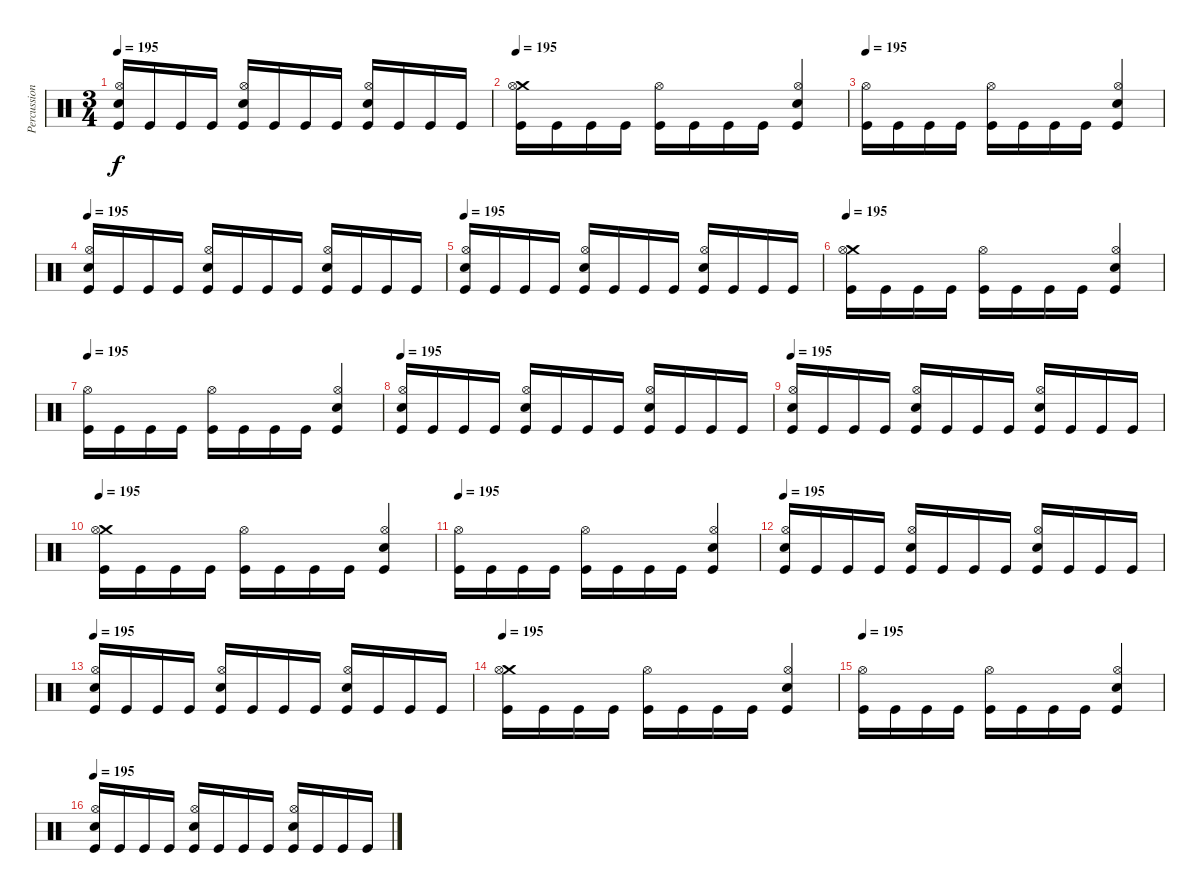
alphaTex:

\track ("Percussion" "Percussion") {instrument percussion}
\staff {score}
\articulation defaults
\ts (3 4)
\tempo 195
\clef neutral
\ks c
("Electric Snare (hit)" "Hi-Hat (open)" "Kick (hit)").16{dy f} "Kick (hit)".16 "Kick (hit)".16 "Kick (hit)".16 ("Electric Snare (hit)" "Hi-Hat (open)" "Kick (hit)").16 "Kick (hit)".16 "Kick (hit)".16 "Kick (hit)".16 ("Electric Snare (hit)" "Hi-Hat (open)" "Kick (hit)").16 "Kick (hit)".16 "Kick (hit)".16 "Kick (hit)".16 |
\tempo 195
("Crash medium (hit)" "Hi-Hat (open)" "Kick (hit)").16 "Kick (hit)".16 "Kick (hit)".16 "Kick (hit)".16 ("Hi-Hat (open)" "Kick (hit)").16 "Kick (hit)".16 "Kick (hit)".16 "Kick (hit)".16 ("Electric Snare (hit)" "Hi-Hat (open)" "Kick (hit)").4 |
\tempo 195
("Hi-Hat (open)" "Kick (hit)").16 "Kick (hit)".16 "Kick (hit)".16 "Kick (hit)".16 ("Hi-Hat (open)" "Kick (hit)").16 "Kick (hit)".16 "Kick (hit)".16 "Kick (hit)".16 ("Electric Snare (hit)" "Hi-Hat (open)" "Kick (hit)").4 |
\tempo 195
("Electric Snare (hit)" "Hi-Hat (open)" "Kick (hit)").16 "Kick (hit)".16 "Kick (hit)".16 "Kick (hit)".16 ("Electric Snare (hit)" "Hi-Hat (open)" "Kick (hit)").16 "Kick (hit)".16 "Kick (hit)".16 "Kick (hit)".16 ("Electric Snare (hit)" "Hi-Hat (open)" "Kick (hit)").16 "Kick (hit)".16 "Kick (hit)".16 "Kick (hit)".16 |
\tempo 195
("Electric Snare (hit)" "Hi-Hat (open)" "Kick (hit)").16 "Kick (hit)".16 "Kick (hit)".16 "Kick (hit)".16 ("Electric Snare (hit)" "Hi-Hat (open)" "Kick (hit)").16 "Kick (hit)".16 "Kick (hit)".16 "Kick (hit)".16 ("Electric Snare (hit)" "Hi-Hat (open)" "Kick (hit)").16 "Kick (hit)".16 "Kick (hit)".16 "Kick (hit)".16 |
\tempo 195
("Crash medium (hit)" "Hi-Hat (open)" "Kick (hit)").16 "Kick (hit)".16 "Kick (hit)".16 "Kick (hit)".16 ("Hi-Hat (open)" "Kick (hit)").16 "Kick (hit)".16 "Kick (hit)".16 "Kick (hit)".16 ("Electric Snare (hit)" "Hi-Hat (open)" "Kick (hit)").4 |
\tempo 195
("Hi-Hat (open)" "Kick (hit)").16 "Kick (hit)".16 "Kick (hit)".16 "Kick (hit)".16 ("Hi-Hat (open)" "Kick (hit)").16 "Kick (hit)".16 "Kick (hit)".16 "Kick (hit)".16 ("Electric Snare (hit)" "Hi-Hat (open)" "Kick (hit)").4 |
\tempo 195
("Electric Snare (hit)" "Hi-Hat (open)" "Kick (hit)").16 "Kick (hit)".16 "Kick (hit)".16 "Kick (hit)".16 ("Electric Snare (hit)" "Hi-Hat (open)" "Kick (hit)").16 "Kick (hit)".16 "Kick (hit)".16 "Kick (hit)".16 ("Electric Snare (hit)" "Hi-Hat (open)" "Kick (hit)").16 "Kick (hit)".16 "Kick (hit)".16 "Kick (hit)".16 |
\tempo 195
("Electric Snare (hit)" "Hi-Hat (open)" "Kick (hit)").16 "Kick (hit)".16 "Kick (hit)".16 "Kick (hit)".16 ("Electric Snare (hit)" "Hi-Hat (open)" "Kick (hit)").16 "Kick (hit)".16 "Kick (hit)".16 "Kick (hit)".16 ("Electric Snare (hit)" "Hi-Hat (open)" "Kick (hit)").16 "Kick (hit)".16 "Kick (hit)".16 "Kick (hit)".16 |
\tempo 195
("Crash medium (hit)" "Hi-Hat (open)" "Kick (hit)").16 "Kick (hit)".16 "Kick (hit)".16 "Kick (hit)".16 ("Hi-Hat (open)" "Kick (hit)").16 "Kick (hit)".16 "Kick (hit)".16 "Kick (hit)".16 ("Electric Snare (hit)" "Hi-Hat (open)" "Kick (hit)").4 |
\tempo 195
("Hi-Hat (open)" "Kick (hit)").16 "Kick (hit)".16 "Kick (hit)".16 "Kick (hit)".16 ("Hi-Hat (open)" "Kick (hit)").16 "Kick (hit)".16 "Kick (hit)".16 "Kick (hit)".16 ("Electric Snare (hit)" "Hi-Hat (open)" "Kick (hit)").4 |
\tempo 195
("Electric Snare (hit)" "Hi-Hat (open)" "Kick (hit)").16 "Kick (hit)".16 "Kick (hit)".16 "Kick (hit)".16 ("Electric Snare (hit)" "Hi-Hat (open)" "Kick (hit)").16 "Kick (hit)".16 "Kick (hit)".16 "Kick (hit)".16 ("Electric Snare (hit)" "Hi-Hat (open)" "Kick (hit)").16 "Kick (hit)".16 "Kick (hit)".16 "Kick (hit)".16 |
\tempo 195
("Electric Snare (hit)" "Hi-Hat (open)" "Kick (hit)").16 "Kick (hit)".16 "Kick (hit)".16 "Kick (hit)".16 ("Electric Snare (hit)" "Hi-Hat (open)" "Kick (hit)").16 "Kick (hit)".16 "Kick (hit)".16 "Kick (hit)".16 ("Electric Snare (hit)" "Hi-Hat (open)" "Kick (hit)").16 "Kick (hit)".16 "Kick (hit)".16 "Kick (hit)".16 |
\tempo 195
("Crash medium (hit)" "Hi-Hat (open)" "Kick (hit)").16 "Kick (hit)".16 "Kick (hit)".16 "Kick (hit)".16 ("Hi-Hat (open)" "Kick (hit)").16 "Kick (hit)".16 "Kick (hit)".16 "Kick (hit)".16 ("Electric Snare (hit)" "Hi-Hat (open)" "Kick (hit)").4 |
\tempo 195
("Hi-Hat (open)" "Kick (hit)").16 "Kick (hit)".16 "Kick (hit)".16 "Kick (hit)".16 ("Hi-Hat (open)" "Kick (hit)").16 "Kick (hit)".16 "Kick (hit)".16 "Kick (hit)".16 ("Electric Snare (hit)" "Hi-Hat (open)" "Kick (hit)").4 |
\tempo 195
("Electric Snare (hit)" "Hi-Hat (open)" "Kick (hit)").16 "Kick (hit)".16 "Kick (hit)".16 "Kick (hit)".16 ("Electric Snare (hit)" "Hi-Hat (open)" "Kick (hit)").16 "Kick (hit)".16 "Kick (hit)".16 "Kick (hit)".16 ("Electric Snare (hit)" "Hi-Hat (open)" "Kick (hit)").16 "Kick (hit)".16 "Kick (hit)".16 "Kick (hit)".16
